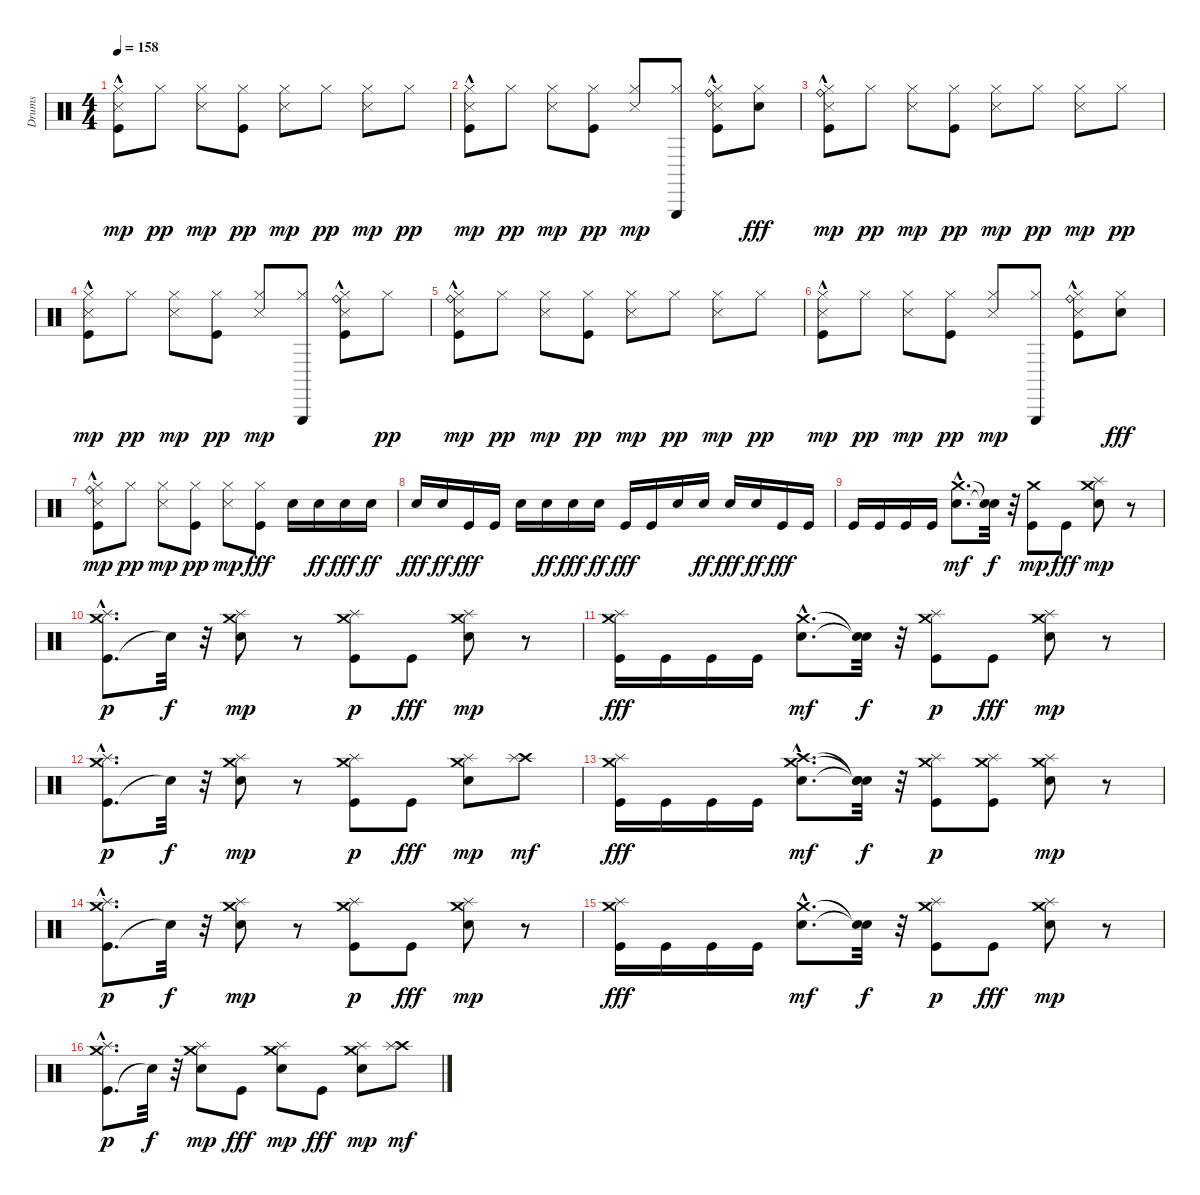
\track ("Drums" "Drums") {instrument percussion}
\staff {score}
\articulation defaults
\ts (4 4)
\tempo 158
\clef neutral
\ks c
("Kick (hit)"{hac} "Snare (side stick) 3" "Hi-Hat (closed)").8{dy mp} "Hi-Hat (closed)".8{dy pp} ("Snare (side stick) 3" "Hi-Hat (closed)").8{dy mp} ("Kick (hit)" "Hi-Hat (closed)").8{dy pp} ("Snare (side stick) 3" "Hi-Hat (closed)").8{dy mp} "Hi-Hat (closed)".8{dy pp} ("Snare (side stick) 3" "Hi-Hat (closed)").8{dy mp} "Hi-Hat (closed)".8{dy pp} |
("Kick (hit)"{hac} "Snare (side stick) 3" "Hi-Hat (closed)").8{dy mp} "Hi-Hat (closed)".8{dy pp} ("Snare (side stick) 3" "Hi-Hat (closed)").8{dy mp} ("Kick (hit)" "Hi-Hat (closed)").8{dy pp} ("Snare (side stick) 3" "Hi-Hat (closed)").8{dy mp} ("Hi-Hat (closed)" "Triangle (hit)").8 ("Snare (side stick) 3" "Hi-Hat (closed)" "Kick (hit)"{hac} "Ride (bell)").8 ("Hi-Hat (closed)" "Electric Snare (hit)").8{dy fff} |
("Kick (hit)"{hac} "Snare (side stick) 3" "Hi-Hat (closed)" "Ride (bell)").8{dy mp} "Hi-Hat (closed)".8{dy pp} ("Snare (side stick) 3" "Hi-Hat (closed)").8{dy mp} ("Kick (hit)" "Hi-Hat (closed)").8{dy pp} ("Snare (side stick) 3" "Hi-Hat (closed)").8{dy mp} "Hi-Hat (closed)".8{dy pp} ("Snare (side stick) 3" "Hi-Hat (closed)").8{dy mp} "Hi-Hat (closed)".8{dy pp} |
("Kick (hit)"{hac} "Snare (side stick) 3" "Hi-Hat (closed)").8{dy mp} "Hi-Hat (closed)".8{dy pp} ("Snare (side stick) 3" "Hi-Hat (closed)").8{dy mp} ("Kick (hit)" "Hi-Hat (closed)").8{dy pp} ("Snare (side stick) 3" "Hi-Hat (closed)").8{dy mp} ("Hi-Hat (closed)" "Triangle (hit)").8 ("Snare (side stick) 3" "Hi-Hat (closed)" "Kick (hit)"{hac} "Ride (bell)").8 "Hi-Hat (closed)".8{dy pp} |
("Kick (hit)"{hac} "Snare (side stick) 3" "Hi-Hat (closed)" "Ride (bell)").8{dy mp} "Hi-Hat (closed)".8{dy pp} ("Snare (side stick) 3" "Hi-Hat (closed)").8{dy mp} ("Kick (hit)" "Hi-Hat (closed)").8{dy pp} ("Snare (side stick) 3" "Hi-Hat (closed)").8{dy mp} "Hi-Hat (closed)".8{dy pp} ("Snare (side stick) 3" "Hi-Hat (closed)").8{dy mp} "Hi-Hat (closed)".8{dy pp} |
("Kick (hit)"{hac} "Snare (side stick) 3" "Hi-Hat (closed)").8{dy mp} "Hi-Hat (closed)".8{dy pp} ("Snare (side stick) 3" "Hi-Hat (closed)").8{dy mp} ("Kick (hit)" "Hi-Hat (closed)").8{dy pp} ("Snare (side stick) 3" "Hi-Hat (closed)").8{dy mp} ("Hi-Hat (closed)" "Triangle (hit)").8 ("Snare (side stick) 3" "Hi-Hat (closed)" "Kick (hit)"{hac} "Ride (bell)").8 ("Hi-Hat (closed)" "Electric Snare (hit)").8{dy fff} |
("Kick (hit)"{hac} "Snare (side stick) 3" "Hi-Hat (closed)" "Ride (bell)").8{dy mp} "Hi-Hat (closed)".8{dy pp} ("Snare (side stick) 3" "Hi-Hat (closed)").8{dy mp} ("Kick (hit)" "Hi-Hat (closed)").8{dy pp} ("Snare (side stick) 3" "Hi-Hat (closed)").8{dy mp} ("Hi-Hat (closed)" "Kick (hit)").8{dy fff} "Electric Snare (hit)".16 "Electric Snare (hit)".16{dy ff} "Electric Snare (hit)".16{dy fff} "Electric Snare (hit)".16{dy ff} |
"Electric Snare (hit)".16{dy fff} "Electric Snare (hit)".16{dy ff} "Kick (hit)".16{dy fff} "Kick (hit)".16 "Electric Snare (hit)".16 "Electric Snare (hit)".16{dy ff} "Electric Snare (hit)".16{dy fff} "Electric Snare (hit)".16{dy ff} "Kick (hit)".16{dy fff} "Kick (hit)".16 "Electric Snare (hit)".16 "Electric Snare (hit)".16{dy ff} "Electric Snare (hit)".16{dy fff} "Electric Snare (hit)".16{dy ff} "Kick (hit)".16{dy fff} "Kick (hit)".16 |
"Kick (hit)".16 "Kick (hit)".16 "Kick (hit)".16 "Kick (hit)".16 ("Electric Snare (hit)"{hac} "Crash medium (hit)"{hac}).8{d dy mf} ("Snare (hit)"{t} "Snare (hit)"{t}).32{dy f} r.32 ("Kick (hit)" "Crash medium (hit)").8{dy mp} "Kick (hit)".8{dy fff} ("Electric Snare (hit)" "Crash medium (hit)" "Splash (hit)").8{dy mp} r.8 |
("Kick (hit)"{hac} "Splash (hit)" "Crash medium (hit)").8{d dy p} "Snare (hit)"{t}.32{dy f} r.32 ("Electric Snare (hit)" "Crash medium (hit)" "Splash (hit)").8{dy mp} r.8 ("Kick (hit)" "Splash (hit)" "Crash medium (hit)").8{dy p} "Kick (hit)".8{dy fff} ("Electric Snare (hit)" "Crash medium (hit)" "Splash (hit)").8{dy mp} r.8 |
("Splash (hit)" "Crash medium (hit)" "Kick (hit)").16{dy fff} "Kick (hit)".16 "Kick (hit)".16 "Kick (hit)".16 ("Electric Snare (hit)"{hac} "Crash medium (hit)"{hac}).8{d dy mf} ("Snare (hit)"{t} "Snare (hit)"{t}).32{dy f} r.32 ("Kick (hit)" "Splash (hit)" "Crash medium (hit)").8{dy p} "Kick (hit)".8{dy fff} ("Electric Snare (hit)" "Crash medium (hit)" "Splash (hit)").8{dy mp} r.8 |
("Kick (hit)"{hac} "Splash (hit)" "Crash medium (hit)").8{d dy p} "Snare (hit)"{t}.32{dy f} r.32 ("Electric Snare (hit)" "Crash medium (hit)" "Splash (hit)").8{dy mp} r.8 ("Kick (hit)" "Splash (hit)" "Crash medium (hit)").8{dy p} "Kick (hit)".8{dy fff} ("Electric Snare (hit)" "Crash medium (hit)" "Splash (hit)").8{dy mp} ("Crash high (hit)" "Splash (hit)").8{dy mf} |
("Splash (hit)" "Crash medium (hit)" "Kick (hit)").16{dy fff} "Kick (hit)".16 "Kick (hit)".16 "Kick (hit)".16 ("Electric Snare (hit)"{hac} "Crash medium (hit)"{hac} "Crash high (hit)"{hac}).8{d dy mf} ("Snare (hit)"{t} "Snare (hit)"{t} "Snare (hit)"{t}).32{dy f} r.32 ("Kick (hit)" "Splash (hit)" "Crash medium (hit)").8{dy p} ("Kick (hit)" "Splash (hit)" "Crash medium (hit)").8 ("Electric Snare (hit)" "Crash medium (hit)" "Splash (hit)").8{dy mp} r.8 |
("Kick (hit)"{hac} "Splash (hit)" "Crash medium (hit)").8{d dy p} "Snare (hit)"{t}.32{dy f} r.32 ("Electric Snare (hit)" "Crash medium (hit)" "Splash (hit)").8{dy mp} r.8 ("Kick (hit)" "Splash (hit)" "Crash medium (hit)").8{dy p} "Kick (hit)".8{dy fff} ("Electric Snare (hit)" "Crash medium (hit)" "Splash (hit)").8{dy mp} r.8 |
("Splash (hit)" "Crash medium (hit)" "Kick (hit)").16{dy fff} "Kick (hit)".16 "Kick (hit)".16 "Kick (hit)".16 ("Electric Snare (hit)"{hac} "Crash medium (hit)"{hac}).8{d dy mf} ("Snare (hit)"{t} "Snare (hit)"{t}).32{dy f} r.32 ("Kick (hit)" "Splash (hit)" "Crash medium (hit)").8{dy p} "Kick (hit)".8{dy fff} ("Electric Snare (hit)" "Crash medium (hit)" "Splash (hit)").8{dy mp} r.8 |
("Kick (hit)"{hac} "Splash (hit)" "Crash medium (hit)").8{d dy p} "Snare (hit)"{t}.32{dy f} r.32 ("Electric Snare (hit)" "Crash medium (hit)" "Splash (hit)").8{dy mp} "Kick (hit)".8{dy fff} ("Electric Snare (hit)" "Crash medium (hit)" "Splash (hit)").8{dy mp} "Kick (hit)".8{dy fff} ("Electric Snare (hit)" "Crash medium (hit)" "Splash (hit)").8{dy mp} ("Crash high (hit)" "Splash (hit)").8{dy mf}
